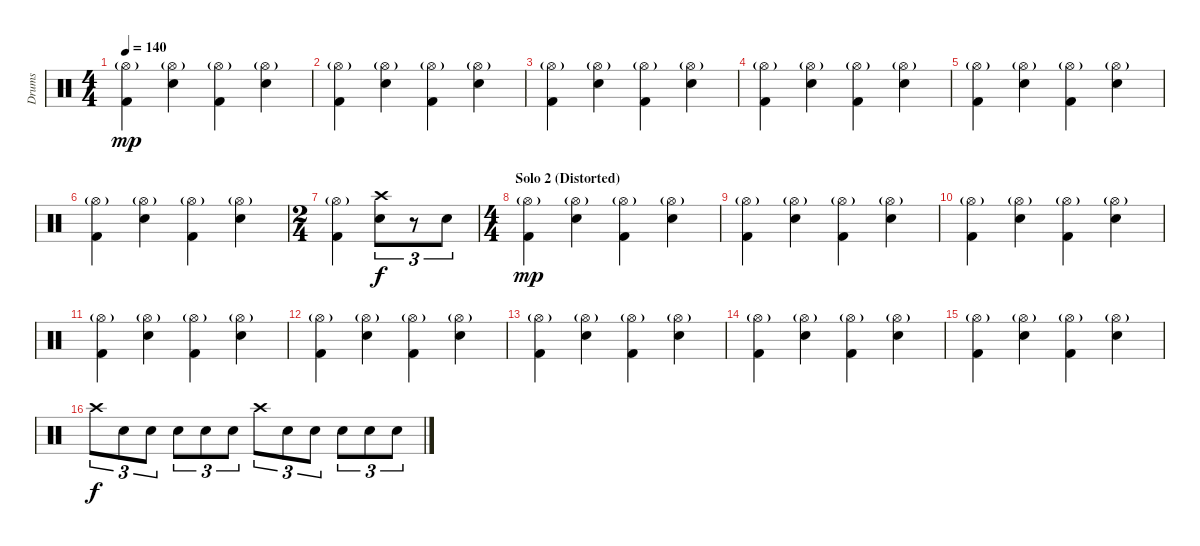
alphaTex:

\track ("Drums" "Drums") {instrument percussion}
\staff {score}
\articulation defaults
\ts (4 4)
\tempo 140
\clef neutral
\ks c
("Hi-Hat (open)"{g} "Kick (hit) 2").4{dy mp} ("Hi-Hat (open)"{g} "Snare (hit) 2").4 ("Hi-Hat (open)"{g} "Kick (hit) 2").4 ("Hi-Hat (open)"{g} "Snare (hit) 2").4 |
("Hi-Hat (open)"{g} "Kick (hit) 2").4 ("Hi-Hat (open)"{g} "Snare (hit) 2").4 ("Hi-Hat (open)"{g} "Kick (hit) 2").4 ("Hi-Hat (open)"{g} "Snare (hit) 2").4 |
("Hi-Hat (open)"{g} "Kick (hit) 2").4 ("Hi-Hat (open)"{g} "Snare (hit) 2").4 ("Hi-Hat (open)"{g} "Kick (hit) 2").4 ("Hi-Hat (open)"{g} "Snare (hit) 2").4 |
("Hi-Hat (open)"{g} "Kick (hit) 2").4 ("Hi-Hat (open)"{g} "Snare (hit) 2").4 ("Hi-Hat (open)"{g} "Kick (hit) 2").4 ("Hi-Hat (open)"{g} "Snare (hit) 2").4 |
("Hi-Hat (open)"{g} "Kick (hit) 2").4 ("Hi-Hat (open)"{g} "Snare (hit) 2").4 ("Hi-Hat (open)"{g} "Kick (hit) 2").4 ("Hi-Hat (open)"{g} "Snare (hit) 2").4 |
("Hi-Hat (open)"{g} "Kick (hit) 2").4 ("Hi-Hat (open)"{g} "Snare (hit) 2").4 ("Hi-Hat (open)"{g} "Kick (hit) 2").4 ("Hi-Hat (open)"{g} "Snare (hit) 2").4 |
\ts (2 4)
("Hi-Hat (open)"{g} "Kick (hit) 2").4 ("Crash high (hit)" "Snare (hit) 2").8{tu (3 2) dy f} r.8{tu (3 2)} "Snare (hit) 2".8{tu (3 2)} |
\ts (4 4)
\section ("" "Solo 2 (Distorted)")
("Hi-Hat (open)"{g} "Kick (hit) 2").4{dy mp} ("Hi-Hat (open)"{g} "Snare (hit) 2").4 ("Hi-Hat (open)"{g} "Kick (hit) 2").4 ("Hi-Hat (open)"{g} "Snare (hit) 2").4 |
("Hi-Hat (open)"{g} "Kick (hit) 2").4 ("Hi-Hat (open)"{g} "Snare (hit) 2").4 ("Hi-Hat (open)"{g} "Kick (hit) 2").4 ("Hi-Hat (open)"{g} "Snare (hit) 2").4 |
("Hi-Hat (open)"{g} "Kick (hit) 2").4 ("Hi-Hat (open)"{g} "Snare (hit) 2").4 ("Hi-Hat (open)"{g} "Kick (hit) 2").4 ("Hi-Hat (open)"{g} "Snare (hit) 2").4 |
("Hi-Hat (open)"{g} "Kick (hit) 2").4 ("Hi-Hat (open)"{g} "Snare (hit) 2").4 ("Hi-Hat (open)"{g} "Kick (hit) 2").4 ("Hi-Hat (open)"{g} "Snare (hit) 2").4 |
("Hi-Hat (open)"{g} "Kick (hit) 2").4 ("Hi-Hat (open)"{g} "Snare (hit) 2").4 ("Hi-Hat (open)"{g} "Kick (hit) 2").4 ("Hi-Hat (open)"{g} "Snare (hit) 2").4 |
("Hi-Hat (open)"{g} "Kick (hit) 2").4 ("Hi-Hat (open)"{g} "Snare (hit) 2").4 ("Hi-Hat (open)"{g} "Kick (hit) 2").4 ("Hi-Hat (open)"{g} "Snare (hit) 2").4 |
("Hi-Hat (open)"{g} "Kick (hit) 2").4 ("Hi-Hat (open)"{g} "Snare (hit) 2").4 ("Hi-Hat (open)"{g} "Kick (hit) 2").4 ("Hi-Hat (open)"{g} "Snare (hit) 2").4 |
("Hi-Hat (open)"{g} "Kick (hit) 2").4 ("Hi-Hat (open)"{g} "Snare (hit) 2").4 ("Hi-Hat (open)"{g} "Kick (hit) 2").4 ("Hi-Hat (open)"{g} "Snare (hit) 2").4 |
"Crash high (hit)".8{tu (3 2) dy f} "Snare (hit) 2".8{tu (3 2)} "Snare (hit) 2".8{tu (3 2)} "Snare (hit) 2".8{tu (3 2)} "Snare (hit) 2".8{tu (3 2)} "Snare (hit) 2".8{tu (3 2)} "Crash high (hit)".8{tu (3 2)} "Snare (hit) 2".8{tu (3 2)} "Snare (hit) 2".8{tu (3 2)} "Snare (hit) 2".8{tu (3 2)} "Snare (hit) 2".8{tu (3 2)} "Snare (hit) 2".8{tu (3 2)}
